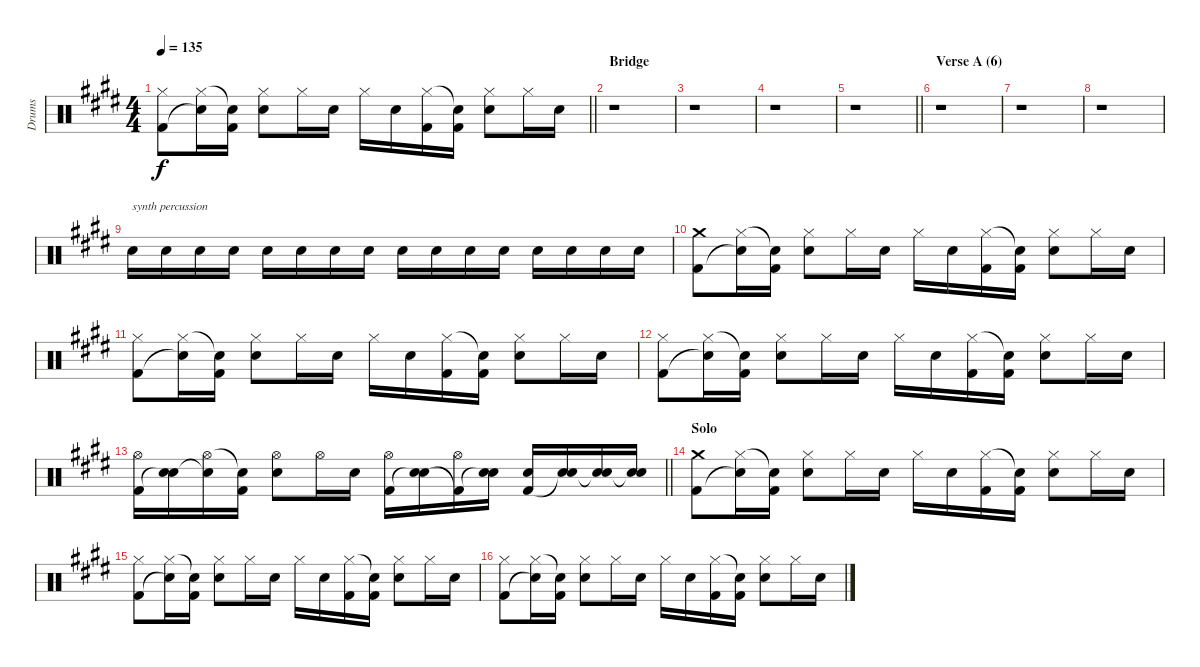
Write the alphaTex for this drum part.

\track ("Drums" "Drums") {instrument percussion}
\staff {score}
\articulation defaults
\ts (4 4)
\tempo 135
\clef neutral
\barLineRight lightlight
\ks c#minor
("Hi-Hat (closed)" "Kick (hit) 2").8{dy f} ("Hi-Hat (closed)" "Snare (hit)"{t}).16 ("Snare (hit)"{t} "Kick (hit) 2").16 ("Hi-Hat (closed)" "Electric Snare (hit)").8 "Hi-Hat (closed)".16 "Electric Snare (hit)".16 "Hi-Hat (closed)".16 "Electric Snare (hit)".16 ("Hi-Hat (closed)" "Kick (hit) 2").16 ("Snare (hit)"{t} "Kick (hit) 2").16 ("Hi-Hat (closed)" "Electric Snare (hit)").8 "Hi-Hat (closed)".16 "Electric Snare (hit)".16 |
\section ("" "Bridge")
r.1 |
r.1 |
r.1 |
\barLineRight lightlight
r.1 |
\section ("" "Verse A (6)")
r.1 |
r.1 |
r.1 |
"Electric Snare (hit)".16{txt "synth percussion"} "Electric Snare (hit)".16 "Electric Snare (hit)".16 "Electric Snare (hit)".16 "Electric Snare (hit)".16 "Electric Snare (hit)".16 "Electric Snare (hit)".16 "Electric Snare (hit)".16 "Electric Snare (hit)".16 "Electric Snare (hit)".16 "Electric Snare (hit)".16 "Electric Snare (hit)".16 "Electric Snare (hit)".16 "Electric Snare (hit)".16 "Electric Snare (hit)".16 "Electric Snare (hit)".16 |
("Crash medium (hit)" "Kick (hit) 2").8 ("Hi-Hat (closed)" "Snare (hit)"{t}).16 ("Snare (hit)"{t} "Kick (hit) 2").16 ("Hi-Hat (closed)" "Electric Snare (hit)").8 "Hi-Hat (closed)".16 "Electric Snare (hit)".16 "Hi-Hat (closed)".16 "Electric Snare (hit)".16 ("Hi-Hat (closed)" "Kick (hit) 2").16 ("Snare (hit)"{t} "Kick (hit) 2").16 ("Hi-Hat (closed)" "Electric Snare (hit)").8 "Hi-Hat (closed)".16 "Electric Snare (hit)".16 |
("Hi-Hat (closed)" "Kick (hit) 2").8 ("Hi-Hat (closed)" "Snare (hit)"{t}).16 ("Snare (hit)"{t} "Kick (hit) 2").16 ("Hi-Hat (closed)" "Electric Snare (hit)").8 "Hi-Hat (closed)".16 "Electric Snare (hit)".16 "Hi-Hat (closed)".16 "Electric Snare (hit)".16 ("Hi-Hat (closed)" "Kick (hit) 2").16 ("Snare (hit)"{t} "Kick (hit) 2").16 ("Hi-Hat (closed)" "Electric Snare (hit)").8 "Hi-Hat (closed)".16 "Electric Snare (hit)".16 |
("Hi-Hat (closed)" "Kick (hit) 2").8 ("Hi-Hat (closed)" "Snare (hit)"{t}).16 ("Snare (hit)"{t} "Kick (hit) 2").16 ("Hi-Hat (closed)" "Electric Snare (hit)").8 "Hi-Hat (closed)".16 "Electric Snare (hit)".16 "Hi-Hat (closed)".16 "Electric Snare (hit)".16 ("Hi-Hat (closed)" "Kick (hit) 2").16 ("Snare (hit)"{t} "Kick (hit) 2").16 ("Hi-Hat (closed)" "Electric Snare (hit)").8 "Hi-Hat (closed)".16 "Electric Snare (hit)".16 |
\barLineRight lightlight
("Hi-Hat (open)" "Kick (hit) 2").16 ("Electric Snare (hit)" "Snare (hit)"{t}).16 ("Hi-Hat (open)" "Snare (hit)"{t}).16 ("Snare (hit)"{t} "Kick (hit) 2").16 ("Hi-Hat (open)" "Electric Snare (hit)").8 "Hi-Hat (open)".16 "Electric Snare (hit)".16 ("Hi-Hat (open)" "Kick (hit) 2").16 ("Electric Snare (hit)" "Snare (hit)"{t}).16 ("Hi-Hat (open)" "Kick (hit) 2"{t}).16 ("Electric Snare (hit)" "Snare (hit)"{t}).16 ("Electric Snare (hit)" "Kick (hit) 2").16 ("Electric Snare (hit)" "Snare (hit)"{t}).16 ("Electric Snare (hit)" "Snare (hit)"{t}).16 ("Electric Snare (hit)" "Snare (hit)"{t}).16 |
\section ("" "Solo")
("Crash medium (hit)" "Kick (hit) 2").8 ("Hi-Hat (closed)" "Snare (hit)"{t}).16 ("Snare (hit)"{t} "Kick (hit) 2").16 ("Hi-Hat (closed)" "Electric Snare (hit)").8 "Hi-Hat (closed)".16 "Electric Snare (hit)".16 "Hi-Hat (closed)".16 "Electric Snare (hit)".16 ("Hi-Hat (closed)" "Kick (hit) 2").16 ("Snare (hit)"{t} "Kick (hit) 2").16 ("Hi-Hat (closed)" "Electric Snare (hit)").8 "Hi-Hat (closed)".16 "Electric Snare (hit)".16 |
("Hi-Hat (closed)" "Kick (hit) 2").8 ("Hi-Hat (closed)" "Snare (hit)"{t}).16 ("Snare (hit)"{t} "Kick (hit) 2").16 ("Hi-Hat (closed)" "Electric Snare (hit)").8 "Hi-Hat (closed)".16 "Electric Snare (hit)".16 "Hi-Hat (closed)".16 "Electric Snare (hit)".16 ("Hi-Hat (closed)" "Kick (hit) 2").16 ("Snare (hit)"{t} "Kick (hit) 2").16 ("Hi-Hat (closed)" "Electric Snare (hit)").8 "Hi-Hat (closed)".16 "Electric Snare (hit)".16 |
("Hi-Hat (closed)" "Kick (hit) 2").8 ("Hi-Hat (closed)" "Snare (hit)"{t}).16 ("Snare (hit)"{t} "Kick (hit) 2").16 ("Hi-Hat (closed)" "Electric Snare (hit)").8 "Hi-Hat (closed)".16 "Electric Snare (hit)".16 "Hi-Hat (closed)".16 "Electric Snare (hit)".16 ("Hi-Hat (closed)" "Kick (hit) 2").16 ("Snare (hit)"{t} "Kick (hit) 2").16 ("Hi-Hat (closed)" "Electric Snare (hit)").8 "Hi-Hat (closed)".16 "Electric Snare (hit)".16
